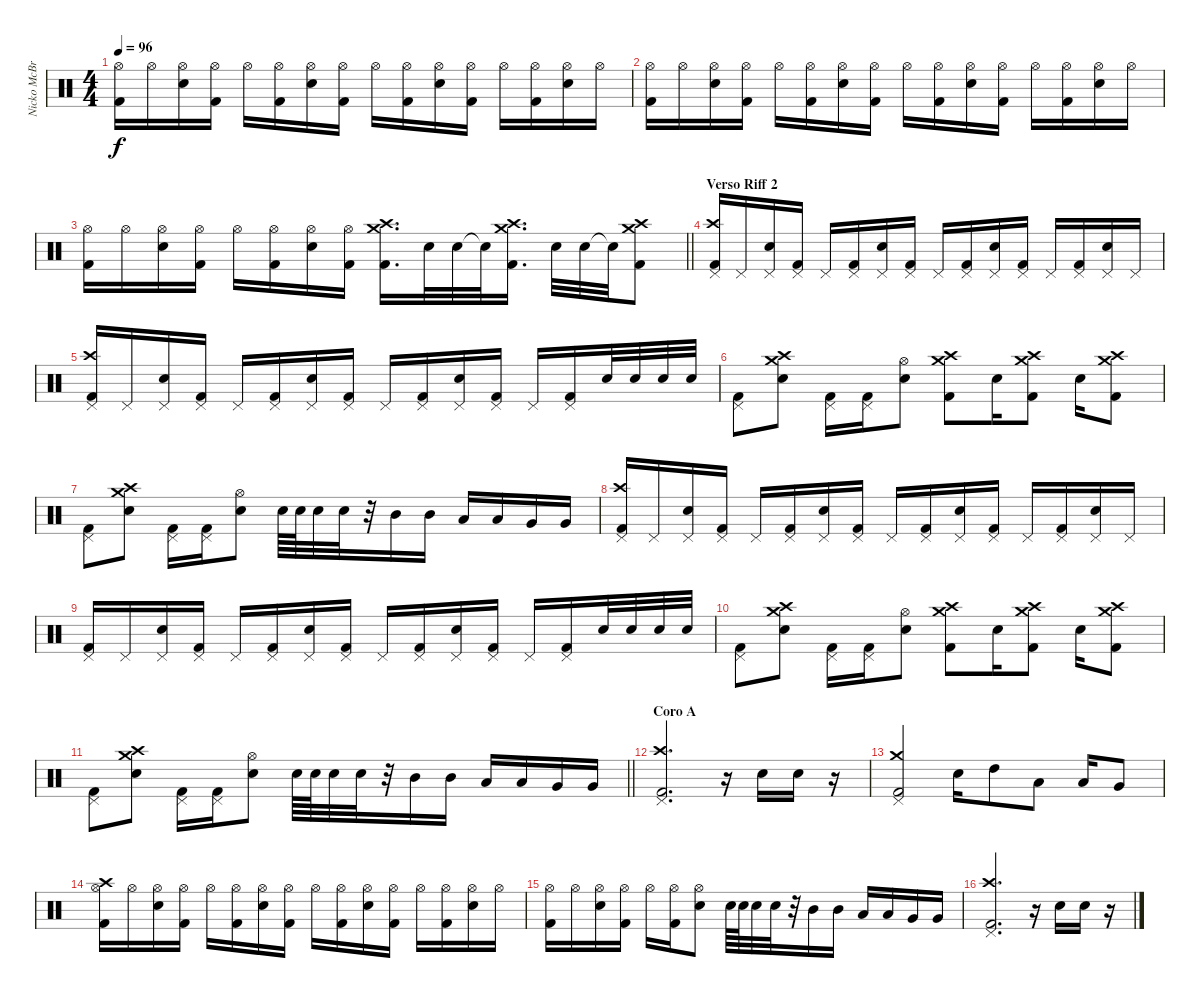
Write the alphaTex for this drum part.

\track ("Nicko McBrain" "Nicko McBr") {instrument percussion}
\staff {score}
\articulation defaults
\ts (4 4)
\tempo 96
\clef neutral
\ks c
("Kick (hit) 2" "Hi-Hat (open)").16{dy f} "Hi-Hat (open)".16 ("Snare (hit) 2" "Hi-Hat (open)").16 ("Kick (hit) 2" "Hi-Hat (open)").16 "Hi-Hat (open)".16 ("Kick (hit) 2" "Hi-Hat (open)").16 ("Snare (hit) 2" "Hi-Hat (open)").16 ("Kick (hit) 2" "Hi-Hat (open)").16 "Hi-Hat (open)".16 ("Kick (hit) 2" "Hi-Hat (open)").16 ("Snare (hit) 2" "Hi-Hat (open)").16 ("Kick (hit) 2" "Hi-Hat (open)").16 "Hi-Hat (open)".16 ("Kick (hit) 2" "Hi-Hat (open)").16 ("Snare (hit) 2" "Hi-Hat (open)").16 "Hi-Hat (open)".16 |
("Kick (hit) 2" "Hi-Hat (open)").16 "Hi-Hat (open)".16 ("Snare (hit) 2" "Hi-Hat (open)").16 ("Kick (hit) 2" "Hi-Hat (open)").16 "Hi-Hat (open)".16 ("Kick (hit) 2" "Hi-Hat (open)").16 ("Snare (hit) 2" "Hi-Hat (open)").16 ("Kick (hit) 2" "Hi-Hat (open)").16 "Hi-Hat (open)".16 ("Kick (hit) 2" "Hi-Hat (open)").16 ("Snare (hit) 2" "Hi-Hat (open)").16 ("Kick (hit) 2" "Hi-Hat (open)").16 "Hi-Hat (open)".16 ("Kick (hit) 2" "Hi-Hat (open)").16 ("Snare (hit) 2" "Hi-Hat (open)").16 "Hi-Hat (open)".16 |
\barLineRight lightlight
("Kick (hit) 2" "Hi-Hat (open)").16 "Hi-Hat (open)".16 ("Snare (hit) 2" "Hi-Hat (open)").16 ("Kick (hit) 2" "Hi-Hat (open)").16 "Hi-Hat (open)".16 ("Kick (hit) 2" "Hi-Hat (open)").16 ("Snare (hit) 2" "Hi-Hat (open)").16 ("Kick (hit) 2" "Hi-Hat (open)").16 ("Crash medium (hit)" "Crash high (hit)" "Kick (hit) 2").16{d} "Snare (hit) 2".32 "Snare (hit) 2".32 "Snare (hit) 2"{t}.32 ("Crash medium (hit)" "Crash high (hit)" "Kick (hit) 2").16{d} "Snare (hit) 2".32 "Snare (hit) 2".32 "Snare (hit) 2"{t}.32 ("Crash medium (hit)" "Crash high (hit)" "Kick (hit) 2").8 |
\section ("" "Verso Riff 2")
("Kick (hit) 2" "Pedal Hi-Hat (hit)" "Crash high (hit)").16 "Pedal Hi-Hat (hit)".16 ("Snare (hit) 2" "Pedal Hi-Hat (hit)").16 ("Kick (hit) 2" "Pedal Hi-Hat (hit)").16 "Pedal Hi-Hat (hit)".16 ("Kick (hit) 2" "Pedal Hi-Hat (hit)").16 ("Snare (hit) 2" "Pedal Hi-Hat (hit)").16 ("Kick (hit) 2" "Pedal Hi-Hat (hit)").16 "Pedal Hi-Hat (hit)".16 ("Kick (hit) 2" "Pedal Hi-Hat (hit)").16 ("Snare (hit) 2" "Pedal Hi-Hat (hit)").16 ("Kick (hit) 2" "Pedal Hi-Hat (hit)").16 "Pedal Hi-Hat (hit)".16 ("Kick (hit) 2" "Pedal Hi-Hat (hit)").16 ("Snare (hit) 2" "Pedal Hi-Hat (hit)").16 "Pedal Hi-Hat (hit)".16 |
("Kick (hit) 2" "Pedal Hi-Hat (hit)" "Crash high (hit)").16 "Pedal Hi-Hat (hit)".16 ("Snare (hit) 2" "Pedal Hi-Hat (hit)").16 ("Kick (hit) 2" "Pedal Hi-Hat (hit)").16 "Pedal Hi-Hat (hit)".16 ("Kick (hit) 2" "Pedal Hi-Hat (hit)").16 ("Snare (hit) 2" "Pedal Hi-Hat (hit)").16 ("Kick (hit) 2" "Pedal Hi-Hat (hit)").16 "Pedal Hi-Hat (hit)".16 ("Kick (hit) 2" "Pedal Hi-Hat (hit)").16 ("Snare (hit) 2" "Pedal Hi-Hat (hit)").16 ("Kick (hit) 2" "Pedal Hi-Hat (hit)").16 "Pedal Hi-Hat (hit)".16 ("Kick (hit) 2" "Pedal Hi-Hat (hit)").16 "Snare (hit) 2".32 "Snare (hit) 2".32 "Snare (hit) 2".32 "Snare (hit) 2".32 |
("Pedal Hi-Hat (hit)" "Kick (hit) 2").8 ("Snare (hit) 2" "Crash medium (hit)" "Crash high (hit)").8 ("Kick (hit) 2" "Pedal Hi-Hat (hit)").16 ("Kick (hit) 2" "Pedal Hi-Hat (hit)").16 ("Snare (hit) 2" "Hi-Hat (open)").8 ("Crash medium (hit)" "Crash high (hit)" "Kick (hit) 2").8 "Snare (hit) 2".16 ("Crash medium (hit)" "Crash high (hit)" "Kick (hit) 2").8 "Snare (hit) 2".16 ("Crash medium (hit)" "Crash high (hit)" "Kick (hit) 2").8 |
("Kick (hit) 2" "Pedal Hi-Hat (hit)").8 ("Snare (hit) 2" "Crash medium (hit)" "Crash high (hit)").8 ("Kick (hit) 2" "Pedal Hi-Hat (hit)").16 ("Kick (hit) 2" "Pedal Hi-Hat (hit)").16 ("Snare (hit) 2" "Hi-Hat (open)").8 "Snare (hit) 2".64 "Snare (hit) 2".64 "Snare (hit) 2".32 "Snare (hit) 2".32 r.32 "Mid Tom (hit)".16 "Mid Tom (hit)".16 "Low Tom (hit)".16 "Low Tom (hit)".16 "Very Low Tom (hit)".16 "Very Low Tom (hit)".16 |
("Kick (hit) 2" "Pedal Hi-Hat (hit)" "Crash high (hit)").16 "Pedal Hi-Hat (hit)".16 ("Snare (hit) 2" "Pedal Hi-Hat (hit)").16 ("Kick (hit) 2" "Pedal Hi-Hat (hit)").16 "Pedal Hi-Hat (hit)".16 ("Kick (hit) 2" "Pedal Hi-Hat (hit)").16 ("Snare (hit) 2" "Pedal Hi-Hat (hit)").16 ("Kick (hit) 2" "Pedal Hi-Hat (hit)").16 "Pedal Hi-Hat (hit)".16 ("Kick (hit) 2" "Pedal Hi-Hat (hit)").16 ("Snare (hit) 2" "Pedal Hi-Hat (hit)").16 ("Kick (hit) 2" "Pedal Hi-Hat (hit)").16 "Pedal Hi-Hat (hit)".16 ("Kick (hit) 2" "Pedal Hi-Hat (hit)").16 ("Snare (hit) 2" "Pedal Hi-Hat (hit)").16 "Pedal Hi-Hat (hit)".16 |
("Kick (hit) 2" "Pedal Hi-Hat (hit)").16 "Pedal Hi-Hat (hit)".16 ("Snare (hit) 2" "Pedal Hi-Hat (hit)").16 ("Kick (hit) 2" "Pedal Hi-Hat (hit)").16 "Pedal Hi-Hat (hit)".16 ("Kick (hit) 2" "Pedal Hi-Hat (hit)").16 ("Snare (hit) 2" "Pedal Hi-Hat (hit)").16 ("Kick (hit) 2" "Pedal Hi-Hat (hit)").16 "Pedal Hi-Hat (hit)".16 ("Kick (hit) 2" "Pedal Hi-Hat (hit)").16 ("Snare (hit) 2" "Pedal Hi-Hat (hit)").16 ("Kick (hit) 2" "Pedal Hi-Hat (hit)").16 "Pedal Hi-Hat (hit)".16 ("Kick (hit) 2" "Pedal Hi-Hat (hit)").16 "Snare (hit) 2".32 "Snare (hit) 2".32 "Snare (hit) 2".32 "Snare (hit) 2".32 |
("Pedal Hi-Hat (hit)" "Kick (hit) 2").8 ("Snare (hit) 2" "Crash medium (hit)" "Crash high (hit)").8 ("Kick (hit) 2" "Pedal Hi-Hat (hit)").16 ("Kick (hit) 2" "Pedal Hi-Hat (hit)").16 ("Snare (hit) 2" "Hi-Hat (open)").8 ("Crash medium (hit)" "Crash high (hit)" "Kick (hit) 2").8 "Snare (hit) 2".16 ("Crash medium (hit)" "Crash high (hit)" "Kick (hit) 2").8 "Snare (hit) 2".16 ("Crash medium (hit)" "Crash high (hit)" "Kick (hit) 2").8 |
\barLineRight lightlight
("Kick (hit) 2" "Pedal Hi-Hat (hit)").8 ("Snare (hit) 2" "Crash medium (hit)" "Crash high (hit)").8 ("Kick (hit) 2" "Pedal Hi-Hat (hit)").16 ("Kick (hit) 2" "Pedal Hi-Hat (hit)").16 ("Snare (hit) 2" "Hi-Hat (open)").8 "Snare (hit) 2".64 "Snare (hit) 2".64 "Snare (hit) 2".32 "Snare (hit) 2".32 r.32 "Mid Tom (hit)".16 "Mid Tom (hit)".16 "Low Tom (hit)".16 "Low Tom (hit)".16 "Very Low Tom (hit)".16 "Very Low Tom (hit)".16 |
\section ("" "Coro A")
("Kick (hit) 2" "Pedal Hi-Hat (hit)" "Crash high (hit)").2{d} r.16 "Snare (hit) 2".16 "Snare (hit) 2".16 r.16 |
("Kick (hit) 2" "Pedal Hi-Hat (hit)" "Crash medium (hit)").2 "Snare (hit) 2".16 "High Tom (hit)".8 "Low Tom (hit)".8 "Low Tom (hit)".16 "Very Low Tom (hit)".8 |
("Kick (hit) 2" "Hi-Hat (open)" "Crash high (hit)").16 "Hi-Hat (open)".16 ("Snare (hit) 2" "Hi-Hat (open)").16 ("Kick (hit) 2" "Hi-Hat (open)").16 "Hi-Hat (open)".16 ("Kick (hit) 2" "Hi-Hat (open)").16 ("Snare (hit) 2" "Hi-Hat (open)").16 ("Kick (hit) 2" "Hi-Hat (open)").16 "Hi-Hat (open)".16 ("Kick (hit) 2" "Hi-Hat (open)").16 ("Snare (hit) 2" "Hi-Hat (open)").16 ("Kick (hit) 2" "Hi-Hat (open)").16 "Hi-Hat (open)".16 ("Kick (hit) 2" "Hi-Hat (open)").16 ("Snare (hit) 2" "Hi-Hat (open)").16 "Hi-Hat (open)".16 |
("Kick (hit) 2" "Hi-Hat (open)").16 "Hi-Hat (open)".16 ("Snare (hit) 2" "Hi-Hat (open)").16 ("Kick (hit) 2" "Hi-Hat (open)").16 "Hi-Hat (open)".16 ("Kick (hit) 2" "Hi-Hat (open)").16 ("Snare (hit) 2" "Hi-Hat (open)").8 "Snare (hit) 2".64 "Snare (hit) 2".64 "Snare (hit) 2".32 "Snare (hit) 2".32 r.32 "Mid Tom (hit)".16 "Mid Tom (hit)".16 "Low Tom (hit)".16 "Low Tom (hit)".16 "Very Low Tom (hit)".16 "Very Low Tom (hit)".16 |
("Kick (hit) 2" "Pedal Hi-Hat (hit)" "Crash high (hit)").2{d} r.16 "Snare (hit) 2".16 "Snare (hit) 2".16 r.16
